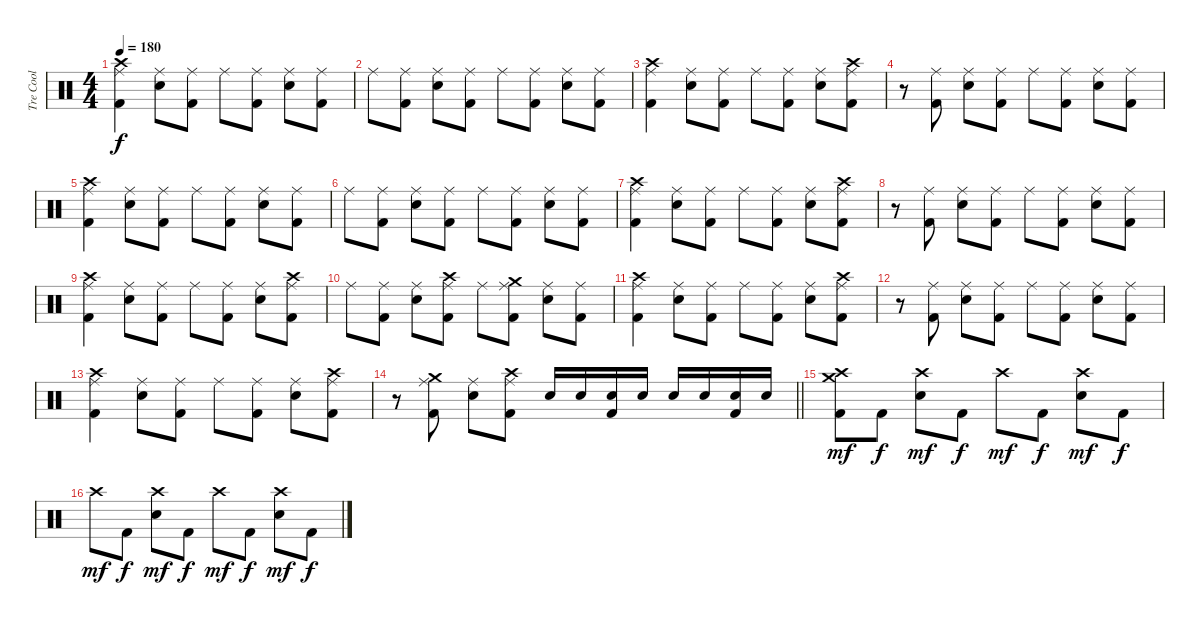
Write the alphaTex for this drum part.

\track ("Tre Cool" "Tre Cool") {instrument percussion}
\staff {score}
\articulation defaults
\ts (4 4)
\tempo 180
\clef neutral
\ks c
("Crash high (hit)" "Ride (middle)" "Kick (hit) 2").4{dy f} ("Ride (middle)" "Electric Snare (hit)").8 ("Ride (middle)" "Kick (hit) 2").8 "Ride (middle)".8 ("Ride (middle)" "Kick (hit) 2").8 ("Ride (middle)" "Electric Snare (hit)").8 ("Ride (middle)" "Kick (hit) 2").8 |
"Ride (middle)".8 ("Ride (middle)" "Kick (hit) 2").8 ("Ride (middle)" "Electric Snare (hit)").8 ("Ride (middle)" "Kick (hit) 2").8 "Ride (middle)".8 ("Ride (middle)" "Kick (hit) 2").8 ("Ride (middle)" "Electric Snare (hit)").8 ("Ride (middle)" "Kick (hit) 2").8 |
("Crash high (hit)" "Ride (middle)" "Kick (hit) 2").4 ("Ride (middle)" "Electric Snare (hit)").8 ("Ride (middle)" "Kick (hit) 2").8 "Ride (middle)".8 ("Ride (middle)" "Kick (hit) 2").8 ("Ride (middle)" "Electric Snare (hit)").8 ("Crash high (hit)" "Ride (middle)" "Kick (hit) 2").8 |
r.8 ("Ride (middle)" "Kick (hit) 2").8 ("Ride (middle)" "Electric Snare (hit)").8 ("Ride (middle)" "Kick (hit) 2").8 "Ride (middle)".8 ("Ride (middle)" "Kick (hit) 2").8 ("Ride (middle)" "Electric Snare (hit)").8 ("Ride (middle)" "Kick (hit) 2").8 |
("Crash high (hit)" "Ride (middle)" "Kick (hit) 2").4 ("Ride (middle)" "Electric Snare (hit)").8 ("Ride (middle)" "Kick (hit) 2").8 "Ride (middle)".8 ("Ride (middle)" "Kick (hit) 2").8 ("Ride (middle)" "Electric Snare (hit)").8 ("Ride (middle)" "Kick (hit) 2").8 |
"Ride (middle)".8 ("Ride (middle)" "Kick (hit) 2").8 ("Ride (middle)" "Electric Snare (hit)").8 ("Ride (middle)" "Kick (hit) 2").8 "Ride (middle)".8 ("Ride (middle)" "Kick (hit) 2").8 ("Ride (middle)" "Electric Snare (hit)").8 ("Ride (middle)" "Kick (hit) 2").8 |
("Crash high (hit)" "Ride (middle)" "Kick (hit) 2").4 ("Ride (middle)" "Electric Snare (hit)").8 ("Ride (middle)" "Kick (hit) 2").8 "Ride (middle)".8 ("Ride (middle)" "Kick (hit) 2").8 ("Ride (middle)" "Electric Snare (hit)").8 ("Crash high (hit)" "Ride (middle)" "Kick (hit) 2").8 |
r.8 ("Ride (middle)" "Kick (hit) 2").8 ("Ride (middle)" "Electric Snare (hit)").8 ("Ride (middle)" "Kick (hit) 2").8 "Ride (middle)".8 ("Ride (middle)" "Kick (hit) 2").8 ("Ride (middle)" "Electric Snare (hit)").8 ("Ride (middle)" "Kick (hit) 2").8 |
("Crash high (hit)" "Ride (middle)" "Kick (hit) 2").4 ("Ride (middle)" "Electric Snare (hit)").8 ("Ride (middle)" "Kick (hit) 2").8 "Ride (middle)".8 ("Ride (middle)" "Kick (hit) 2").8 ("Ride (middle)" "Electric Snare (hit)").8 ("Crash high (hit)" "Ride (middle)" "Kick (hit) 2").8 |
"Ride (middle)".8 ("Ride (middle)" "Kick (hit) 2").8 ("Ride (middle)" "Electric Snare (hit)").8 ("Crash high (hit)" "Ride (middle)" "Kick (hit) 2").8 "Ride (middle)".8 ("Crash medium (hit)" "Ride (middle)" "Kick (hit) 2").8 ("Ride (middle)" "Electric Snare (hit)").8 ("Ride (middle)" "Kick (hit) 2").8 |
("Crash high (hit)" "Ride (middle)" "Kick (hit) 2").4 ("Ride (middle)" "Electric Snare (hit)").8 ("Ride (middle)" "Kick (hit) 2").8 "Ride (middle)".8 ("Ride (middle)" "Kick (hit) 2").8 ("Ride (middle)" "Electric Snare (hit)").8 ("Crash high (hit)" "Ride (middle)" "Kick (hit) 2").8 |
r.8 ("Ride (middle)" "Kick (hit) 2").8 ("Ride (middle)" "Electric Snare (hit)").8 ("Ride (middle)" "Kick (hit) 2").8 "Ride (middle)".8 ("Ride (middle)" "Kick (hit) 2").8 ("Ride (middle)" "Electric Snare (hit)").8 ("Ride (middle)" "Kick (hit) 2").8 |
("Crash high (hit)" "Ride (middle)" "Kick (hit) 2").4 ("Ride (middle)" "Electric Snare (hit)").8 ("Ride (middle)" "Kick (hit) 2").8 "Ride (middle)".8 ("Ride (middle)" "Kick (hit) 2").8 ("Ride (middle)" "Electric Snare (hit)").8 ("Crash high (hit)" "Ride (middle)" "Kick (hit) 2").8 |
\barLineRight lightlight
r.8 ("Crash medium (hit)" "Ride (middle)" "Kick (hit) 2").8 ("Ride (middle)" "Electric Snare (hit)").8 ("Crash high (hit)" "Ride (middle)" "Kick (hit) 2").8 "Electric Snare (hit)".16 "Electric Snare (hit)".16 ("Electric Snare (hit)" "Kick (hit) 2").16 "Electric Snare (hit)".16 "Electric Snare (hit)".16 "Electric Snare (hit)".16 ("Electric Snare (hit)" "Kick (hit) 2").16 "Electric Snare (hit)".16 |
("Crash medium (hit)" "Crash high (hit)" "Kick (hit) 2").8{dy mf} "Kick (hit) 2".8{dy f} ("Crash high (hit)" "Electric Snare (hit)").8{dy mf} "Kick (hit) 2".8{dy f} "Crash high (hit)".8{dy mf} "Kick (hit) 2".8{dy f} ("Crash high (hit)" "Electric Snare (hit)").8{dy mf} "Kick (hit) 2".8{dy f} |
"Crash high (hit)".8{dy mf} "Kick (hit) 2".8{dy f} ("Crash high (hit)" "Electric Snare (hit)").8{dy mf} "Kick (hit) 2".8{dy f} "Crash high (hit)".8{dy mf} "Kick (hit) 2".8{dy f} ("Crash high (hit)" "Electric Snare (hit)").8{dy mf} "Kick (hit) 2".8{dy f}
